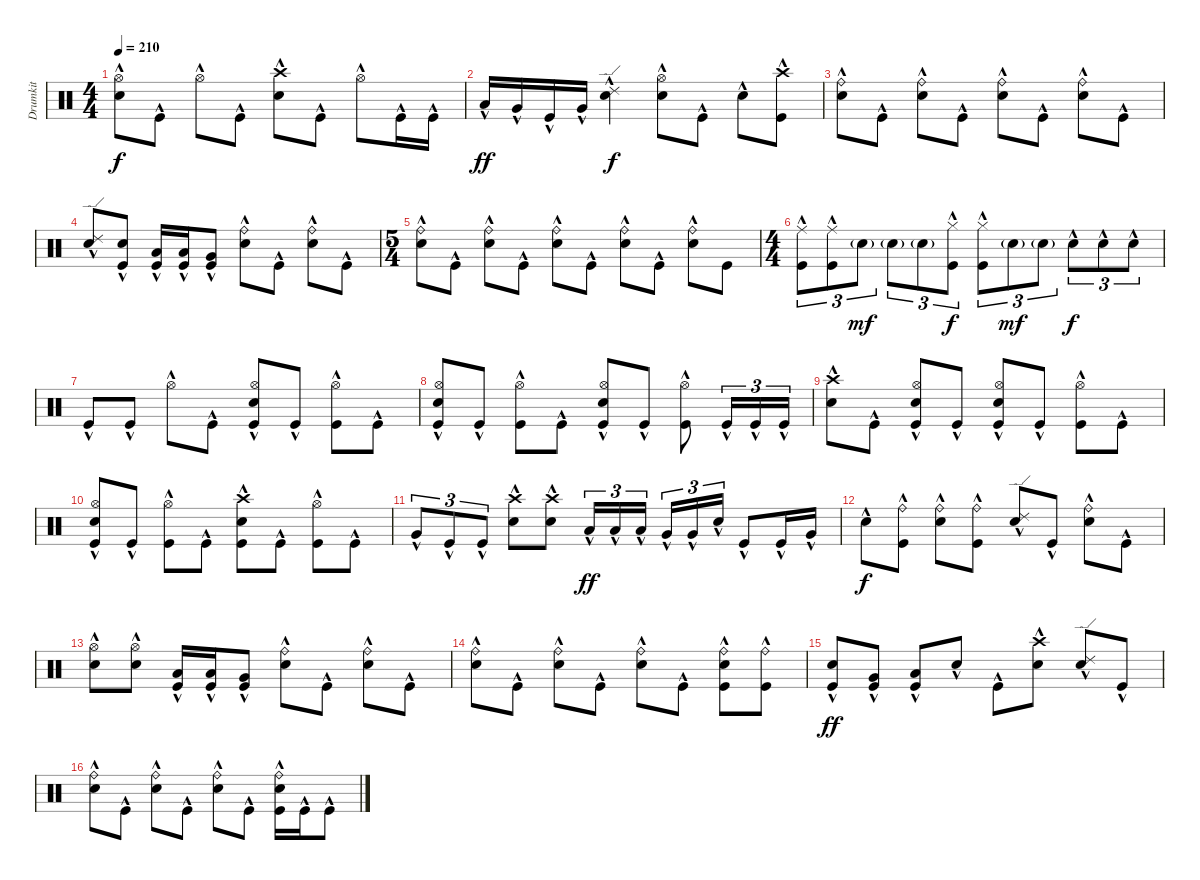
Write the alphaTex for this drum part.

\track ("Drumkit" "Drumkit") {instrument percussion}
\staff {score}
\articulation defaults
\ts (4 4)
\tempo 210
\clef neutral
\ks c
("Snare (hit) 2"{hac} "Hi-Hat (open)"{hac}).8{dy f} "Kick (hit)"{hac}.8 "Hi-Hat (open)"{hac}.8 "Kick (hit)"{hac}.8 ("Snare (hit) 2"{hac} "Crash high (hit)"{hac}).8 "Kick (hit)"{hac}.8 "Hi-Hat (open)"{hac}.8 "Kick (hit)"{hac}.16 "Kick (hit)"{hac}.16 |
"Low Tom (hit)"{hac}.16{dy ff} "Very Low Tom (hit)"{hac}.16 "Kick (hit)"{hac}.16 "Very Low Tom (hit)"{hac}.16 ("Snare (hit) 2"{hac} "Ride (edge) 2"{hac}).4{dy f} ("Snare (hit) 2"{hac} "Hi-Hat (open)"{hac}).8 "Kick (hit)"{hac}.8 "Snare (hit) 2"{hac}.8 ("Kick (hit)"{hac} "Crash high (hit)"{hac}).8 |
("Snare (hit) 2"{hac} "Ride (bell)"{hac}).8 "Kick (hit)"{hac}.8 ("Snare (hit) 2"{hac} "Ride (bell)"{hac}).8 "Kick (hit)"{hac}.8 ("Snare (hit) 2"{hac} "Ride (bell)"{hac}).8 "Kick (hit)"{hac}.8 ("Snare (hit) 2"{hac} "Ride (bell)"{hac}).8 "Kick (hit)"{hac}.8 |
("Snare (hit) 2"{hac} "Ride (edge) 2"{hac}).8 ("Kick (hit)"{hac} "Snare (hit) 2"{hac}).8 ("Kick (hit)"{hac} "Low Tom (hit)"{hac}).16 ("Kick (hit)"{hac} "Low Tom (hit)"{hac}).16 ("Kick (hit)"{hac} "Very Low Tom (hit)"{hac}).8 ("Snare (hit) 2"{hac} "Ride (bell)"{hac}).8 "Kick (hit)"{hac}.8 ("Snare (hit) 2"{hac} "Ride (bell)"{hac}).8 "Kick (hit)"{hac}.8 |
\ts (5 4)
("Snare (hit) 2"{hac} "Ride (bell)"{hac}).8 "Kick (hit)"{hac}.8 ("Snare (hit) 2"{hac} "Ride (bell)"{hac}).8 "Kick (hit)"{hac}.8 ("Snare (hit) 2"{hac} "Ride (bell)"{hac}).8 "Kick (hit)"{hac}.8 ("Snare (hit) 2"{hac} "Ride (bell)"{hac}).8 "Kick (hit)"{hac}.8 ("Snare (hit) 2"{hac} "Ride (bell)").8 "Kick (hit)".8 |
\ts (4 4)
("Ride (middle)"{hac} "Kick (hit)"{hac}).8{tu (3 2)} ("Ride (middle)"{hac} "Kick (hit)"{hac}).8{tu (3 2)} "Snare (hit) 2"{g}.8{tu (3 2) dy mf} "Snare (hit) 2"{g}.8{tu (3 2)} "Snare (hit) 2"{g}.8{tu (3 2)} ("Kick (hit)"{hac} "Hi-Hat (closed)"{hac}).8{tu (3 2) dy f} ("Kick (hit)"{hac} "Hi-Hat (closed)"{hac}).8{tu (3 2)} "Snare (hit) 2"{g}.8{tu (3 2) dy mf} "Snare (hit) 2"{g}.8{tu (3 2)} "Snare (hit) 2"{hac}.8{tu (3 2) dy f} "Snare (hit) 2"{hac}.8{tu (3 2)} "Snare (hit) 2"{hac}.8{tu (3 2)} |
"Kick (hit)"{hac}.8 "Kick (hit)"{hac}.8 "Hi-Hat (open)"{hac}.8 "Kick (hit)"{hac}.8 ("Snare (hit) 2"{hac} "Kick (hit)"{hac} "Hi-Hat (open)"{hac}).8 "Kick (hit)"{hac}.8 ("Kick (hit)"{hac} "Hi-Hat (open)"{hac}).8 "Kick (hit)"{hac}.8 |
("Snare (hit) 2"{hac} "Kick (hit)"{hac} "Hi-Hat (open)"{hac}).8 "Kick (hit)"{hac}.8 ("Kick (hit)"{hac} "Hi-Hat (open)"{hac}).8 "Kick (hit)"{hac}.8 ("Snare (hit) 2"{hac} "Kick (hit)"{hac} "Hi-Hat (open)"{hac}).8 "Kick (hit)"{hac}.8 ("Kick (hit)"{hac} "Hi-Hat (open)"{hac}).8 "Kick (hit)"{hac}.16{tu (3 2)} "Kick (hit)"{hac}.16{tu (3 2)} "Kick (hit)"{hac}.16{tu (3 2)} |
("Snare (hit) 2"{hac} "Crash high (hit)"{hac}).8 "Kick (hit)"{hac}.8 ("Kick (hit)"{hac} "Hi-Hat (open)"{hac} "Snare (hit) 2"{hac}).8 "Kick (hit)"{hac}.8 ("Snare (hit) 2"{hac} "Kick (hit)"{hac} "Hi-Hat (open)"{hac}).8 "Kick (hit)"{hac}.8 ("Kick (hit)"{hac} "Hi-Hat (open)"{hac}).8 "Kick (hit)"{hac}.8 |
("Snare (hit) 2"{hac} "Kick (hit)"{hac} "Hi-Hat (open)"{hac}).8 "Kick (hit)"{hac}.8 ("Kick (hit)"{hac} "Hi-Hat (open)"{hac}).8 "Kick (hit)"{hac}.8 ("Snare (hit) 2"{hac} "Kick (hit)"{hac} "Crash high (hit)"{hac}).8 "Kick (hit)"{hac}.8 ("Kick (hit)"{hac} "Hi-Hat (open)"{hac}).8 "Kick (hit)"{hac}.8 |
"Very Low Tom (hit)"{hac}.8{tu (3 2)} "Kick (hit)"{hac}.8{tu (3 2)} "Kick (hit)"{hac}.8{tu (3 2)} ("Snare (hit) 2"{hac} "Crash high (hit)"{hac}).8 ("Snare (hit) 2"{hac} "Crash high (hit)"{hac}).8 "Low Tom (hit)"{hac}.16{tu (3 2) dy ff} "Low Tom (hit)"{hac}.16{tu (3 2)} "Low Tom (hit)"{hac}.16{tu (3 2)} "Very Low Tom (hit)"{hac}.16{tu (3 2)} "Very Low Tom (hit)"{hac}.16{tu (3 2)} "Snare (hit) 2"{hac}.16{tu (3 2)} "Kick (hit)"{hac}.8 "Kick (hit)"{hac}.16 "Very Low Tom (hit)"{hac}.16 |
"Snare (hit) 2"{hac}.8{dy f} ("Kick (hit)"{hac} "Ride (bell)"{hac}).8 ("Snare (hit) 2"{hac} "Ride (bell)"{hac}).8 ("Kick (hit)"{hac} "Ride (bell)"{hac}).8 ("Snare (hit) 2"{hac} "Ride (edge) 2"{hac}).8 "Kick (hit)"{hac}.8 ("Snare (hit) 2"{hac} "Ride (bell)"{hac}).8 "Kick (hit)"{hac}.8 |
("Snare (hit) 2"{hac} "Hi-Hat (open)"{hac}).8 ("Snare (hit) 2"{hac} "Hi-Hat (open)"{hac}).8 ("Kick (hit)"{hac} "Low Tom (hit)").16 ("Kick (hit)"{hac} "Low Tom (hit)"{hac}).16 ("Kick (hit)"{hac} "Very Low Tom (hit)"{hac}).8 ("Snare (hit) 2"{hac} "Ride (bell)"{hac}).8 "Kick (hit)"{hac}.8 ("Snare (hit) 2"{hac} "Ride (bell)"{hac}).8 "Kick (hit)"{hac}.8 |
("Snare (hit) 2"{hac} "Ride (bell)"{hac}).8 "Kick (hit)"{hac}.8 ("Snare (hit) 2"{hac} "Ride (bell)"{hac}).8 "Kick (hit)"{hac}.8 ("Snare (hit) 2"{hac} "Ride (bell)"{hac}).8 "Kick (hit)"{hac}.8 ("Snare (hit) 2"{hac} "Ride (bell)"{hac} "Kick (hit)"{hac}).8 ("Kick (hit)"{hac} "Ride (bell)"{hac}).8 |
("Snare (hit) 2"{hac} "Kick (hit)"{hac}).8{dy ff} ("Kick (hit)"{hac} "Very Low Tom (hit)"{hac}).8 ("Kick (hit)"{hac} "Low Tom (hit)"{hac}).8 "Snare (hit) 2"{hac}.8 "Kick (hit)"{hac}.8 ("Snare (hit) 2"{hac} "Crash high (hit)"{hac}).8 ("Snare (hit) 2"{hac} "Ride (edge) 2"{hac}).8 "Kick (hit)"{hac}.8 |
("Snare (hit) 2"{hac} "Ride (bell)"{hac}).8 "Kick (hit)"{hac}.8 ("Snare (hit) 2"{hac} "Ride (bell)"{hac}).8 "Kick (hit)"{hac}.8 ("Snare (hit) 2"{hac} "Ride (bell)"{hac}).8 "Kick (hit)"{hac}.8 ("Kick (hit)"{hac} "Snare (hit) 2"{hac} "Ride (bell)"{hac}).16 "Kick (hit)"{hac}.16 "Kick (hit)"{hac}.8
